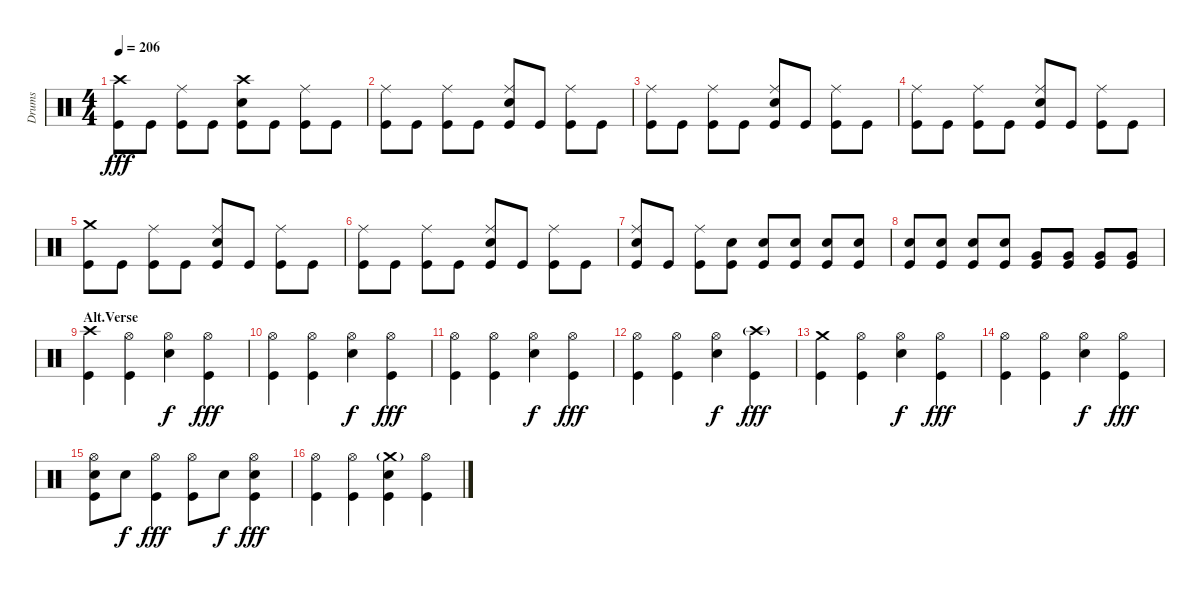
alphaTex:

\track ("Drums" "Drums") {instrument percussion}
\staff {score}
\articulation defaults
\ts (4 4)
\tempo 206
\clef neutral
\ks c
("Crash high (hit)" "Kick (hit)").8{dy fff} "Kick (hit)".8 ("Ride (middle)" "Kick (hit)").8 "Kick (hit)".8 ("Crash high (hit)" "Snare (hit) 2" "Kick (hit)").8 "Kick (hit)".8 ("Ride (middle)" "Kick (hit)").8 "Kick (hit)".8 |
("Ride (middle)" "Kick (hit)").8 "Kick (hit)".8 ("Ride (middle)" "Kick (hit)").8 "Kick (hit)".8 ("Ride (middle)" "Snare (hit) 2" "Kick (hit)").8 "Kick (hit)".8 ("Ride (middle)" "Kick (hit)").8 "Kick (hit)".8 |
("Ride (middle)" "Kick (hit)").8 "Kick (hit)".8 ("Ride (middle)" "Kick (hit)").8 "Kick (hit)".8 ("Ride (middle)" "Snare (hit) 2" "Kick (hit)").8 "Kick (hit)".8 ("Ride (middle)" "Kick (hit)").8 "Kick (hit)".8 |
("Ride (middle)" "Kick (hit)").8 "Kick (hit)".8 ("Ride (middle)" "Kick (hit)").8 "Kick (hit)".8 ("Ride (middle)" "Snare (hit) 2" "Kick (hit)").8 "Kick (hit)".8 ("Ride (middle)" "Kick (hit)").8 "Kick (hit)".8 |
("Crash medium (hit)" "Kick (hit)").8 "Kick (hit)".8 ("Ride (middle)" "Kick (hit)").8 "Kick (hit)".8 ("Ride (middle)" "Snare (hit) 2" "Kick (hit)").8 "Kick (hit)".8 ("Ride (middle)" "Kick (hit)").8 "Kick (hit)".8 |
("Ride (middle)" "Kick (hit)").8 "Kick (hit)".8 ("Ride (middle)" "Kick (hit)").8 "Kick (hit)".8 ("Ride (middle)" "Snare (hit) 2" "Kick (hit)").8 "Kick (hit)".8 ("Ride (middle)" "Kick (hit)").8 "Kick (hit)".8 |
("Ride (middle)" "Snare (hit) 2" "Kick (hit)").8 "Kick (hit)".8 ("Ride (middle)" "Kick (hit)").8 ("Snare (hit) 2" "Kick (hit)").8 ("Snare (hit) 2" "Kick (hit)").8 ("Snare (hit) 2" "Kick (hit)").8 ("Snare (hit) 2" "Kick (hit)").8 ("Snare (hit) 2" "Kick (hit)").8 |
("Snare (hit) 2" "Kick (hit)").8 ("Snare (hit) 2" "Kick (hit)").8 ("Snare (hit) 2" "Kick (hit)").8 ("Snare (hit) 2" "Kick (hit)").8 ("Very Low Tom (hit)" "Kick (hit)").8 ("Very Low Tom (hit)" "Kick (hit)").8 ("Very Low Tom (hit)" "Kick (hit)").8 ("Very Low Tom (hit)" "Kick (hit)").8 |
\section ("" "Alt.Verse")
("Crash high (hit)" "Kick (hit)").4 ("Hi-Hat (open)" "Kick (hit)").4 ("Hi-Hat (open)" "Snare (hit) 2").4{dy f} ("Hi-Hat (open)" "Kick (hit)").4{dy fff} |
("Hi-Hat (open)" "Kick (hit)").4 ("Hi-Hat (open)" "Kick (hit)").4 ("Hi-Hat (open)" "Snare (hit) 2").4{dy f} ("Hi-Hat (open)" "Kick (hit)").4{dy fff} |
("Hi-Hat (open)" "Kick (hit)").4 ("Hi-Hat (open)" "Kick (hit)").4 ("Hi-Hat (open)" "Snare (hit) 2").4{dy f} ("Hi-Hat (open)" "Kick (hit)").4{dy fff} |
("Hi-Hat (open)" "Kick (hit)").4 ("Hi-Hat (open)" "Kick (hit)").4 ("Hi-Hat (open)" "Snare (hit) 2").4{dy f} ("Crash high (hit)"{g} "Kick (hit)").4{dy fff} |
("Crash medium (hit)" "Kick (hit)").4 ("Hi-Hat (open)" "Kick (hit)").4 ("Hi-Hat (open)" "Snare (hit) 2").4{dy f} ("Hi-Hat (open)" "Kick (hit)").4{dy fff} |
("Hi-Hat (open)" "Kick (hit)").4 ("Hi-Hat (open)" "Kick (hit)").4 ("Hi-Hat (open)" "Snare (hit) 2").4{dy f} ("Hi-Hat (open)" "Kick (hit)").4{dy fff} |
("Hi-Hat (open)" "Snare (hit) 2" "Kick (hit)").8 "Snare (hit) 2".8{dy f} ("Hi-Hat (open)" "Kick (hit)").4{dy fff} ("Hi-Hat (open)" "Kick (hit)").8 "Snare (hit) 2".8{dy f} ("Hi-Hat (open)" "Snare (hit) 2" "Kick (hit)").4{dy fff} |
("Hi-Hat (open)" "Kick (hit)").4 ("Hi-Hat (open)" "Kick (hit)").4 ("Crash medium (hit)"{g} "Snare (hit) 2" "Kick (hit)").4 ("Hi-Hat (open)" "Kick (hit)").4
